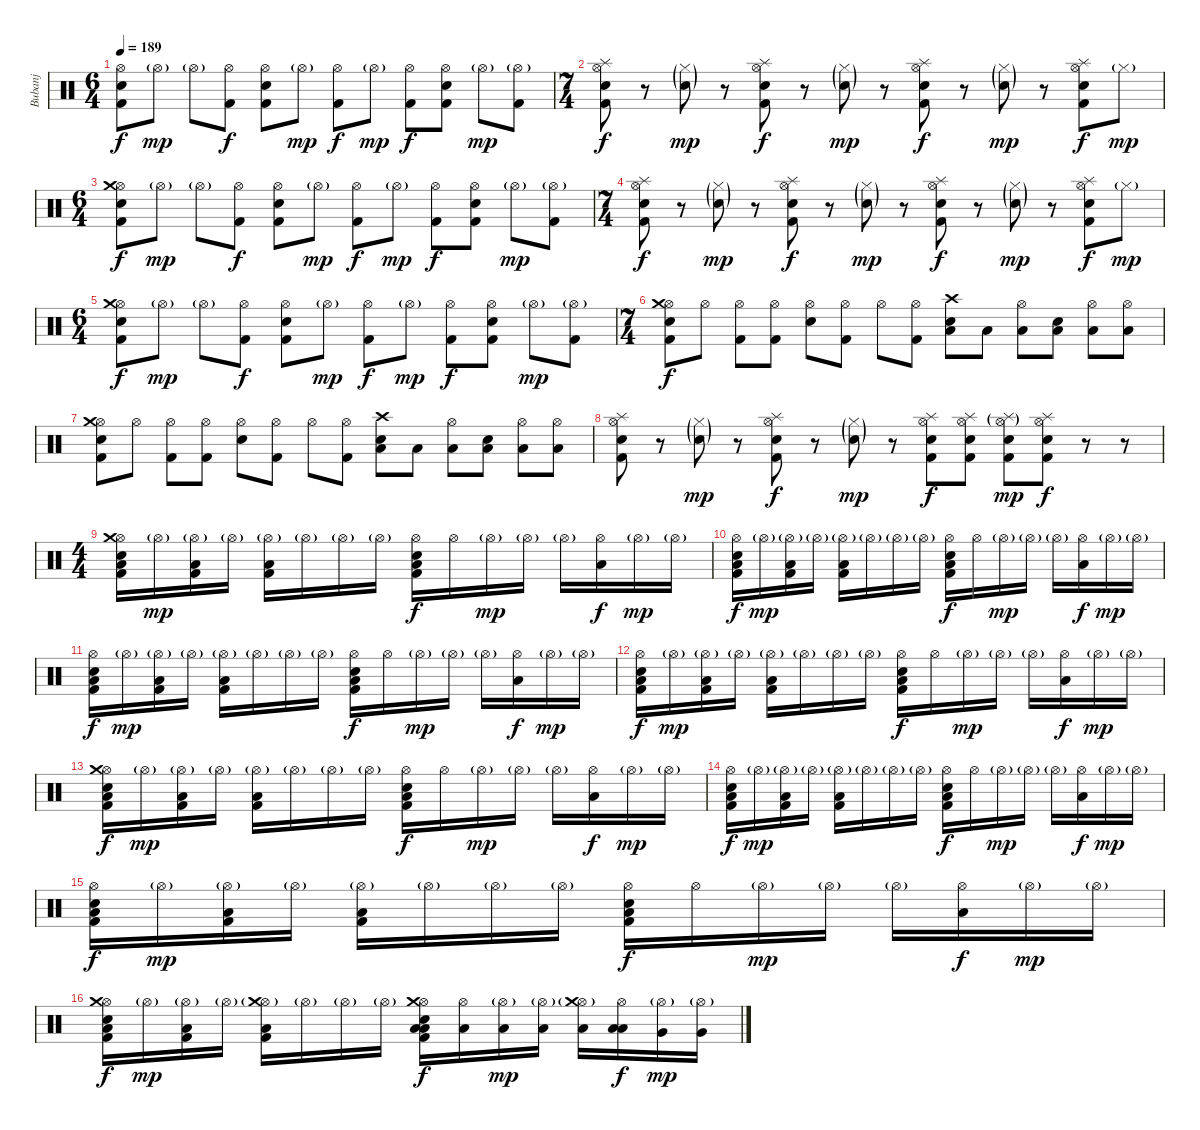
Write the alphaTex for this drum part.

\track ("Bubanj" "Bubanj") {instrument percussion}
\staff {score}
\articulation defaults
\ts (6 4)
\tempo 189
\clef neutral
\ks c
("Hi-Hat (open)" "Kick (hit) 2" "Electric Snare (hit)").8{dy f} "Hi-Hat (open)"{g}.8{dy mp} "Hi-Hat (open)"{g}.8 ("Hi-Hat (open)" "Kick (hit) 2").8{dy f} ("Hi-Hat (open)" "Kick (hit) 2" "Electric Snare (hit)").8 "Hi-Hat (open)"{g}.8{dy mp} ("Hi-Hat (open)" "Kick (hit) 2").8{dy f} "Hi-Hat (open)"{g}.8{dy mp} ("Hi-Hat (open)" "Kick (hit) 2").8{dy f} ("Hi-Hat (open)" "Kick (hit) 2" "Electric Snare (hit)").8 "Hi-Hat (open)"{g}.8{dy mp} ("Hi-Hat (open)"{g} "Kick (hit) 2").8 |
\ts (7 4)
("Splash (hit)" "Kick (hit) 2" "Hi-Hat (open)" "Electric Snare (hit)").8{dy f} r.8 ("Electric Snare (hit)"{g} "Hi-Hat (closed)"{g}).8{dy mp} r.8 ("Splash (hit)" "Kick (hit) 2" "Hi-Hat (open)" "Electric Snare (hit)").8{dy f} r.8 ("Electric Snare (hit)"{g} "Hi-Hat (closed)"{g}).8{dy mp} r.8 ("Splash (hit)" "Kick (hit) 2" "Hi-Hat (open)" "Electric Snare (hit)").8{dy f} r.8 ("Electric Snare (hit)"{g} "Hi-Hat (closed)"{g}).8{dy mp} r.8 ("Splash (hit)" "Kick (hit) 2" "Hi-Hat (open)" "Electric Snare (hit)").8{dy f} "Hi-Hat (closed)"{g}.8{dy mp} |
\ts (6 4)
("Hi-Hat (open)" "Crash medium (hit)" "Kick (hit) 2" "Electric Snare (hit)").8{dy f} "Hi-Hat (open)"{g}.8{dy mp} "Hi-Hat (open)"{g}.8 ("Hi-Hat (open)" "Kick (hit) 2").8{dy f} ("Hi-Hat (open)" "Kick (hit) 2" "Electric Snare (hit)").8 "Hi-Hat (open)"{g}.8{dy mp} ("Hi-Hat (open)" "Kick (hit) 2").8{dy f} "Hi-Hat (open)"{g}.8{dy mp} ("Hi-Hat (open)" "Kick (hit) 2").8{dy f} ("Hi-Hat (open)" "Kick (hit) 2" "Electric Snare (hit)").8 "Hi-Hat (open)"{g}.8{dy mp} ("Hi-Hat (open)"{g} "Kick (hit) 2").8 |
\ts (7 4)
("Splash (hit)" "Kick (hit) 2" "Hi-Hat (open)" "Electric Snare (hit)").8{dy f} r.8 ("Electric Snare (hit)"{g} "Hi-Hat (closed)"{g}).8{dy mp} r.8 ("Splash (hit)" "Kick (hit) 2" "Hi-Hat (open)" "Electric Snare (hit)").8{dy f} r.8 ("Electric Snare (hit)"{g} "Hi-Hat (closed)"{g}).8{dy mp} r.8 ("Splash (hit)" "Kick (hit) 2" "Hi-Hat (open)" "Electric Snare (hit)").8{dy f} r.8 ("Electric Snare (hit)"{g} "Hi-Hat (closed)"{g}).8{dy mp} r.8 ("Splash (hit)" "Kick (hit) 2" "Hi-Hat (open)" "Electric Snare (hit)").8{dy f} "Hi-Hat (closed)"{g}.8{dy mp} |
\ts (6 4)
("Hi-Hat (open)" "Crash medium (hit)" "Kick (hit) 2" "Electric Snare (hit)").8{dy f} "Hi-Hat (open)"{g}.8{dy mp} "Hi-Hat (open)"{g}.8 ("Hi-Hat (open)" "Kick (hit) 2").8{dy f} ("Hi-Hat (open)" "Kick (hit) 2" "Electric Snare (hit)").8 "Hi-Hat (open)"{g}.8{dy mp} ("Hi-Hat (open)" "Kick (hit) 2").8{dy f} "Hi-Hat (open)"{g}.8{dy mp} ("Hi-Hat (open)" "Kick (hit) 2").8{dy f} ("Hi-Hat (open)" "Kick (hit) 2" "Electric Snare (hit)").8 "Hi-Hat (open)"{g}.8{dy mp} ("Hi-Hat (open)"{g} "Kick (hit) 2").8 |
\ts (7 4)
("Hi-Hat (open)" "Crash medium (hit)" "Kick (hit) 2" "Electric Snare (hit)").8{dy f} "Hi-Hat (open)".8 ("Hi-Hat (open)" "Kick (hit) 2").8 ("Hi-Hat (open)" "Kick (hit) 2").8 ("Hi-Hat (open)" "Electric Snare (hit)").8 ("Hi-Hat (open)" "Kick (hit) 2").8 "Hi-Hat (open)".8 ("Hi-Hat (open)" "Kick (hit) 2").8 ("Low Tom (hit)" "Crash high (hit)" "Electric Snare (hit)").8 "Low Tom (hit)".8 ("Low Tom (hit)" "Hi-Hat (open)").8 ("Low Floor Tom (hit)" "Electric Snare (hit)").8 ("Low Floor Tom (hit)" "Hi-Hat (open)").8 ("Low Floor Tom (hit)" "Hi-Hat (open)").8 |
("Hi-Hat (open)" "Crash medium (hit)" "Kick (hit) 2" "Electric Snare (hit)").8 "Hi-Hat (open)".8 ("Hi-Hat (open)" "Kick (hit) 2").8 ("Hi-Hat (open)" "Kick (hit) 2").8 ("Hi-Hat (open)" "Electric Snare (hit)").8 ("Hi-Hat (open)" "Kick (hit) 2").8 "Hi-Hat (open)".8 ("Hi-Hat (open)" "Kick (hit) 2").8 ("Low Tom (hit)" "Crash high (hit)" "Electric Snare (hit)").8 "Low Tom (hit)".8 ("Low Tom (hit)" "Hi-Hat (open)").8 ("Low Floor Tom (hit)" "Electric Snare (hit)").8 ("Low Floor Tom (hit)" "Hi-Hat (open)").8 ("Low Floor Tom (hit)" "Hi-Hat (open)").8 |
("Splash (hit)" "Kick (hit) 2" "Hi-Hat (open)" "Electric Snare (hit)").8 r.8 ("Electric Snare (hit)"{g} "Hi-Hat (closed)"{g}).8{dy mp} r.8 ("Splash (hit)" "Kick (hit) 2" "Hi-Hat (open)" "Electric Snare (hit)").8{dy f} r.8 ("Electric Snare (hit)"{g} "Hi-Hat (closed)"{g}).8{dy mp} r.8 ("Splash (hit)" "Kick (hit) 2" "Hi-Hat (open)" "Electric Snare (hit)").8{dy f} ("Splash (hit)" "Kick (hit) 2" "Hi-Hat (open)" "Electric Snare (hit)").8 ("Splash (hit)"{g} "Kick (hit) 2" "Hi-Hat (open)"{g} "Electric Snare (hit)").8{dy mp} ("Splash (hit)" "Kick (hit) 2" "Hi-Hat (open)" "Electric Snare (hit)").8{dy f} r.8 r.8 |
\ts (4 4)
("Hi-Hat (open)" "Crash medium (hit)" "Electric Snare (hit)" "Kick (hit) 2" "Low Tom (hit)").16 "Hi-Hat (open)"{g}.16{dy mp} ("Hi-Hat (open)"{g} "Kick (hit) 2" "Low Tom (hit)").16 "Hi-Hat (open)"{g}.16 ("Hi-Hat (open)"{g} "Kick (hit) 2" "Low Tom (hit)").16 "Hi-Hat (open)"{g}.16 "Hi-Hat (open)"{g}.16 "Hi-Hat (open)"{g}.16 ("Hi-Hat (open)" "Electric Snare (hit)" "Kick (hit) 2" "Low Tom (hit)").16{dy f} "Hi-Hat (open)".16 "Hi-Hat (open)"{g}.16{dy mp} "Hi-Hat (open)"{g}.16 "Hi-Hat (open)"{g}.16 ("Hi-Hat (open)" "Low Tom (hit)").16{dy f} "Hi-Hat (open)"{g}.16{dy mp} "Hi-Hat (open)"{g}.16 |
("Hi-Hat (open)" "Electric Snare (hit)" "Kick (hit) 2" "Low Tom (hit)").16{dy f} "Hi-Hat (open)"{g}.16{dy mp} ("Hi-Hat (open)"{g} "Kick (hit) 2" "Low Tom (hit)").16 "Hi-Hat (open)"{g}.16 ("Hi-Hat (open)"{g} "Kick (hit) 2" "Low Tom (hit)").16 "Hi-Hat (open)"{g}.16 "Hi-Hat (open)"{g}.16 "Hi-Hat (open)"{g}.16 ("Hi-Hat (open)" "Electric Snare (hit)" "Kick (hit) 2" "Low Tom (hit)").16{dy f} "Hi-Hat (open)".16 "Hi-Hat (open)"{g}.16{dy mp} "Hi-Hat (open)"{g}.16 "Hi-Hat (open)"{g}.16 ("Hi-Hat (open)" "Low Tom (hit)").16{dy f} "Hi-Hat (open)"{g}.16{dy mp} "Hi-Hat (open)"{g}.16 |
("Hi-Hat (open)" "Electric Snare (hit)" "Kick (hit) 2" "Low Tom (hit)").16{dy f} "Hi-Hat (open)"{g}.16{dy mp} ("Hi-Hat (open)"{g} "Kick (hit) 2" "Low Tom (hit)").16 "Hi-Hat (open)"{g}.16 ("Hi-Hat (open)"{g} "Kick (hit) 2" "Low Tom (hit)").16 "Hi-Hat (open)"{g}.16 "Hi-Hat (open)"{g}.16 "Hi-Hat (open)"{g}.16 ("Hi-Hat (open)" "Electric Snare (hit)" "Kick (hit) 2" "Low Tom (hit)").16{dy f} "Hi-Hat (open)".16 "Hi-Hat (open)"{g}.16{dy mp} "Hi-Hat (open)"{g}.16 "Hi-Hat (open)"{g}.16 ("Hi-Hat (open)" "Low Tom (hit)").16{dy f} "Hi-Hat (open)"{g}.16{dy mp} "Hi-Hat (open)"{g}.16 |
("Hi-Hat (open)" "Electric Snare (hit)" "Kick (hit) 2" "Low Tom (hit)").16{dy f} "Hi-Hat (open)"{g}.16{dy mp} ("Hi-Hat (open)"{g} "Kick (hit) 2" "Low Tom (hit)").16 "Hi-Hat (open)"{g}.16 ("Hi-Hat (open)"{g} "Kick (hit) 2" "Low Tom (hit)").16 "Hi-Hat (open)"{g}.16 "Hi-Hat (open)"{g}.16 "Hi-Hat (open)"{g}.16 ("Hi-Hat (open)" "Electric Snare (hit)" "Kick (hit) 2" "Low Tom (hit)").16{dy f} "Hi-Hat (open)".16 "Hi-Hat (open)"{g}.16{dy mp} "Hi-Hat (open)"{g}.16 "Hi-Hat (open)"{g}.16 ("Hi-Hat (open)" "Low Tom (hit)").16{dy f} "Hi-Hat (open)"{g}.16{dy mp} "Hi-Hat (open)"{g}.16 |
("Hi-Hat (open)" "Electric Snare (hit)" "Kick (hit) 2" "Low Tom (hit)" "Crash medium (hit)").16{dy f} "Hi-Hat (open)"{g}.16{dy mp} ("Hi-Hat (open)"{g} "Kick (hit) 2" "Low Tom (hit)").16 "Hi-Hat (open)"{g}.16 ("Hi-Hat (open)"{g} "Kick (hit) 2" "Low Tom (hit)").16 "Hi-Hat (open)"{g}.16 "Hi-Hat (open)"{g}.16 "Hi-Hat (open)"{g}.16 ("Hi-Hat (open)" "Electric Snare (hit)" "Kick (hit) 2" "Low Tom (hit)").16{dy f} "Hi-Hat (open)".16 "Hi-Hat (open)"{g}.16{dy mp} "Hi-Hat (open)"{g}.16 "Hi-Hat (open)"{g}.16 ("Hi-Hat (open)" "Low Tom (hit)").16{dy f} "Hi-Hat (open)"{g}.16{dy mp} "Hi-Hat (open)"{g}.16 |
("Hi-Hat (open)" "Electric Snare (hit)" "Kick (hit) 2" "Low Tom (hit)").16{dy f} "Hi-Hat (open)"{g}.16{dy mp} ("Hi-Hat (open)"{g} "Kick (hit) 2" "Low Tom (hit)").16 "Hi-Hat (open)"{g}.16 ("Hi-Hat (open)"{g} "Kick (hit) 2" "Low Tom (hit)").16 "Hi-Hat (open)"{g}.16 "Hi-Hat (open)"{g}.16 "Hi-Hat (open)"{g}.16 ("Hi-Hat (open)" "Electric Snare (hit)" "Kick (hit) 2" "Low Tom (hit)").16{dy f} "Hi-Hat (open)".16 "Hi-Hat (open)"{g}.16{dy mp} "Hi-Hat (open)"{g}.16 "Hi-Hat (open)"{g}.16 ("Hi-Hat (open)" "Low Tom (hit)").16{dy f} "Hi-Hat (open)"{g}.16{dy mp} "Hi-Hat (open)"{g}.16 |
("Hi-Hat (open)" "Electric Snare (hit)" "Kick (hit) 2" "Low Tom (hit)").16{dy f} "Hi-Hat (open)"{g}.16{dy mp} ("Hi-Hat (open)"{g} "Kick (hit) 2" "Low Tom (hit)").16 "Hi-Hat (open)"{g}.16 ("Hi-Hat (open)"{g} "Kick (hit) 2" "Low Tom (hit)").16 "Hi-Hat (open)"{g}.16 "Hi-Hat (open)"{g}.16 "Hi-Hat (open)"{g}.16 ("Hi-Hat (open)" "Electric Snare (hit)" "Kick (hit) 2" "Low Tom (hit)").16{dy f} "Hi-Hat (open)".16 "Hi-Hat (open)"{g}.16{dy mp} "Hi-Hat (open)"{g}.16 "Hi-Hat (open)"{g}.16 ("Hi-Hat (open)" "Low Tom (hit)").16{dy f} "Hi-Hat (open)"{g}.16{dy mp} "Hi-Hat (open)"{g}.16 |
("Hi-Hat (open)" "Crash medium (hit)" "Electric Snare (hit)" "Kick (hit) 2" "Low Tom (hit)").16{dy f} "Hi-Hat (open)"{g}.16{dy mp} ("Hi-Hat (open)"{g} "Kick (hit) 2" "Low Tom (hit)").16 "Hi-Hat (open)"{g}.16 ("Hi-Hat (open)"{g} "Crash medium (hit)" "Kick (hit) 2" "Low Tom (hit)").16 "Hi-Hat (open)"{g}.16 "Hi-Hat (open)"{g}.16 "Hi-Hat (open)"{g}.16 ("Hi-Hat (open)" "Low Tom (hit)" "Electric Snare (hit)" "Kick (hit) 2" "Low Tom (hit)" "Crash medium (hit)").16{dy f} ("Hi-Hat (open)" "Low Tom (hit)").16 ("Hi-Hat (open)"{g} "Low Tom (hit)").16{dy mp} ("Hi-Hat (open)"{g} "Low Floor Tom (hit)").16 ("Hi-Hat (open)"{g} "Low Floor Tom (hit)" "Crash medium (hit)").16 ("Hi-Hat (open)" "Low Floor Tom (hit)" "Low Tom (hit)").16{dy f} ("Hi-Hat (open)"{g} "Very Low Tom (hit)").16{dy mp} ("Hi-Hat (open)"{g} "Very Low Tom (hit)").16
